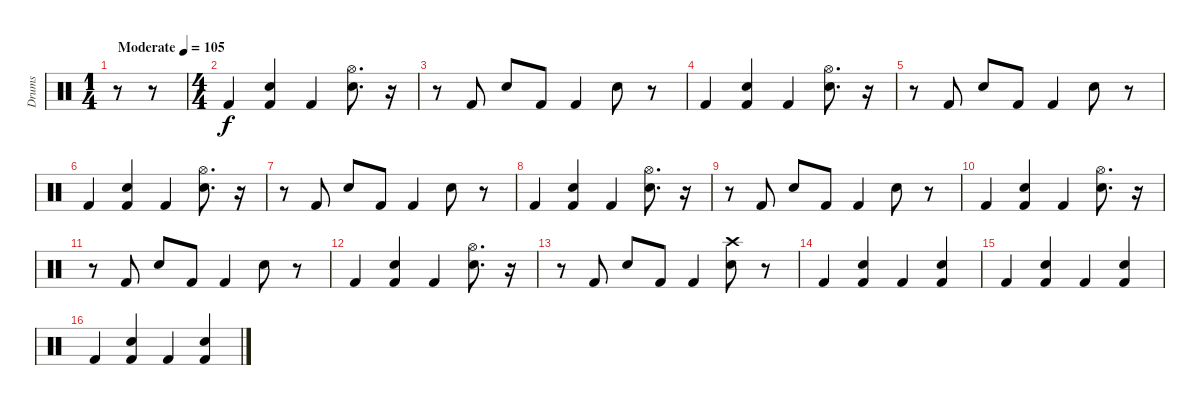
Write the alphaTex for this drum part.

\track ("Drums" "Drums") {instrument percussion}
\staff {score}
\articulation defaults
\ts (1 4)
\tempo (105 "Moderate")
\clef neutral
\ks c
r.8{dy f} r.8 |
\ts (4 4)
"Kick (hit) 2".4 ("Snare (hit) 2" "Kick (hit) 2").4 "Kick (hit) 2".4 ("Snare (hit) 2" "Hi-Hat (open)").8{d} r.16 |
r.8 "Kick (hit) 2".8 "Snare (hit) 2".8 "Kick (hit) 2".8 "Kick (hit) 2".4 "Snare (hit) 2".8 r.8 |
"Kick (hit) 2".4 ("Snare (hit) 2" "Kick (hit) 2").4 "Kick (hit) 2".4 ("Snare (hit) 2" "Hi-Hat (open)").8{d} r.16 |
r.8 "Kick (hit) 2".8 "Snare (hit) 2".8 "Kick (hit) 2".8 "Kick (hit) 2".4 "Snare (hit) 2".8 r.8 |
"Kick (hit) 2".4 ("Snare (hit) 2" "Kick (hit) 2").4 "Kick (hit) 2".4 ("Snare (hit) 2" "Hi-Hat (open)").8{d} r.16 |
r.8 "Kick (hit) 2".8 "Snare (hit) 2".8 "Kick (hit) 2".8 "Kick (hit) 2".4 "Snare (hit) 2".8 r.8 |
"Kick (hit) 2".4 ("Snare (hit) 2" "Kick (hit) 2").4 "Kick (hit) 2".4 ("Snare (hit) 2" "Hi-Hat (open)").8{d} r.16 |
r.8 "Kick (hit) 2".8 "Snare (hit) 2".8 "Kick (hit) 2".8 "Kick (hit) 2".4 "Snare (hit) 2".8 r.8 |
"Kick (hit) 2".4 ("Snare (hit) 2" "Kick (hit) 2").4 "Kick (hit) 2".4 ("Snare (hit) 2" "Hi-Hat (open)").8{d} r.16 |
r.8 "Kick (hit) 2".8 "Snare (hit) 2".8 "Kick (hit) 2".8 "Kick (hit) 2".4 "Snare (hit) 2".8 r.8 |
"Kick (hit) 2".4 ("Snare (hit) 2" "Kick (hit) 2").4 "Kick (hit) 2".4 ("Snare (hit) 2" "Hi-Hat (open)").8{d} r.16 |
r.8 "Kick (hit) 2".8 "Snare (hit) 2".8 "Kick (hit) 2".8 "Kick (hit) 2".4 ("Snare (hit) 2" "Crash high (hit)").8 r.8 |
"Kick (hit) 2".4 ("Kick (hit) 2" "Snare (hit) 2").4 "Kick (hit) 2".4 ("Kick (hit) 2" "Snare (hit) 2").4 |
"Kick (hit) 2".4 ("Kick (hit) 2" "Snare (hit) 2").4 "Kick (hit) 2".4 ("Kick (hit) 2" "Snare (hit) 2").4 |
"Kick (hit) 2".4 ("Kick (hit) 2" "Snare (hit) 2").4 "Kick (hit) 2".4 ("Kick (hit) 2" "Snare (hit) 2").4
